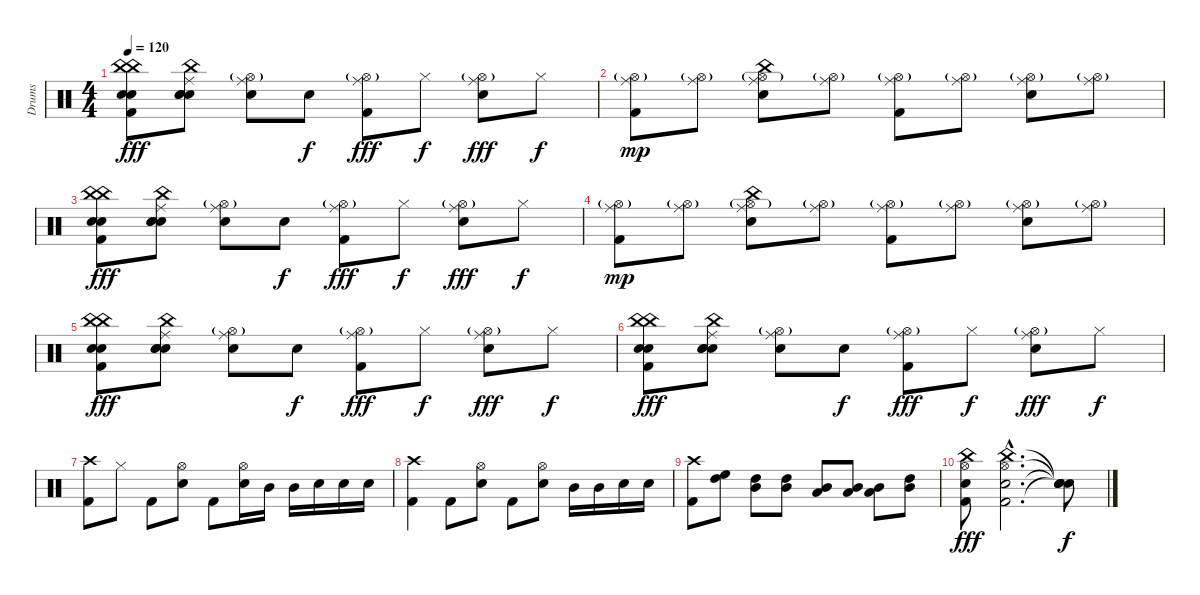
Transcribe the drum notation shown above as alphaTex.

\track ("Drums" "Drums") {instrument percussion}
\staff {score}
\articulation defaults
\ts (4 4)
\tempo 120
\clef neutral
\ks c
("China (hit)" "China (hit)" "Hand Clap (hit)" "Hand Clap (hit)" "Kick (hit) 2").8{dy fff} ("China (hit)" "Ride (middle)" "Snare (hit)" "Hand Clap (hit)" "Hand Clap (hit)").8 ("Hi-Hat (open)"{g} "Ride (middle)" "Electric Snare (hit)").8 "Electric Snare (hit)".8{dy f} ("Hi-Hat (open)"{g} "Ride (middle)" "Kick (hit) 2").8{dy fff} "Hi-Hat (closed)".8{dy f} ("Hi-Hat (open)"{g} "Ride (middle)" "Electric Snare (hit)").8{dy fff} "Hi-Hat (closed)".8{dy f} |
("Ride (middle)" "Hi-Hat (open)"{g} "Kick (hit) 2").8{dy mp} ("Ride (middle)" "Hi-Hat (open)"{g}).8 ("Ride (middle)" "Hi-Hat (open)"{g} "Electric Snare (hit)" "China (hit)").8 ("Ride (middle)" "Hi-Hat (open)"{g}).8 ("Ride (middle)" "Hi-Hat (open)"{g} "Kick (hit) 2").8 ("Ride (middle)" "Hi-Hat (open)"{g}).8 ("Ride (middle)" "Hi-Hat (open)"{g} "Electric Snare (hit)").8 ("Ride (middle)" "Hi-Hat (open)"{g}).8 |
("China (hit)" "China (hit)" "Hand Clap (hit)" "Hand Clap (hit)" "Kick (hit) 2").8{dy fff} ("China (hit)" "Ride (middle)" "Snare (hit)" "Hand Clap (hit)" "Hand Clap (hit)").8 ("Hi-Hat (open)"{g} "Ride (middle)" "Electric Snare (hit)").8 "Electric Snare (hit)".8{dy f} ("Hi-Hat (open)"{g} "Ride (middle)" "Kick (hit) 2").8{dy fff} "Hi-Hat (closed)".8{dy f} ("Hi-Hat (open)"{g} "Ride (middle)" "Electric Snare (hit)").8{dy fff} "Hi-Hat (closed)".8{dy f} |
("Ride (middle)" "Hi-Hat (open)"{g} "Kick (hit) 2").8{dy mp} ("Ride (middle)" "Hi-Hat (open)"{g}).8 ("Ride (middle)" "Hi-Hat (open)"{g} "Electric Snare (hit)" "China (hit)").8 ("Ride (middle)" "Hi-Hat (open)"{g}).8 ("Ride (middle)" "Hi-Hat (open)"{g} "Kick (hit) 2").8 ("Ride (middle)" "Hi-Hat (open)"{g}).8 ("Ride (middle)" "Hi-Hat (open)"{g} "Electric Snare (hit)").8 ("Ride (middle)" "Hi-Hat (open)"{g}).8 |
("China (hit)" "China (hit)" "Hand Clap (hit)" "Hand Clap (hit)" "Kick (hit) 2").8{dy fff} ("China (hit)" "Ride (middle)" "Snare (hit)" "Hand Clap (hit)" "Hand Clap (hit)").8 ("Hi-Hat (open)"{g} "Ride (middle)" "Electric Snare (hit)").8 "Electric Snare (hit)".8{dy f} ("Hi-Hat (open)"{g} "Ride (middle)" "Kick (hit) 2").8{dy fff} "Hi-Hat (closed)".8{dy f} ("Hi-Hat (open)"{g} "Ride (middle)" "Electric Snare (hit)").8{dy fff} "Hi-Hat (closed)".8{dy f} |
("China (hit)" "China (hit)" "Hand Clap (hit)" "Hand Clap (hit)" "Kick (hit) 2").8{dy fff} ("China (hit)" "Ride (middle)" "Snare (hit)" "Hand Clap (hit)" "Hand Clap (hit)").8 ("Hi-Hat (open)"{g} "Ride (middle)" "Electric Snare (hit)").8 "Electric Snare (hit)".8{dy f} ("Hi-Hat (open)"{g} "Ride (middle)" "Kick (hit) 2").8{dy fff} "Hi-Hat (closed)".8{dy f} ("Hi-Hat (open)"{g} "Ride (middle)" "Electric Snare (hit)").8{dy fff} "Hi-Hat (closed)".8{dy f} |
("Crash high (hit)" "Kick (hit) 2").8 "Hi-Hat (closed)".8 "Kick (hit) 2".8 ("Hi-Hat (open)" "Electric Snare (hit)").8 "Kick (hit) 2".8 ("Hi-Hat (open)" "Electric Snare (hit)").16 "Mid Tom (hit)".16 "Mid Tom (hit)".16 "Electric Snare (hit)".16 "Electric Snare (hit)".16 "Electric Snare (hit)".16 |
("Crash high (hit)" "Kick (hit) 2").4 "Kick (hit) 2".8 ("Hi-Hat (open)" "Electric Snare (hit)").8 "Kick (hit) 2".8 ("Hi-Hat (open)" "Electric Snare (hit)").8 "Mid Tom (hit)".16 "Mid Tom (hit)".16 "Electric Snare (hit)".16 "Electric Snare (hit)".16 |
("Crash high (hit)" "Kick (hit) 2").8 ("High Tom (hit)" "High Floor Tom (hit)").8 ("Mid Tom (hit)" "High Tom (hit)").8 ("Mid Tom (hit)" "High Tom (hit)").8 ("Low Tom (hit)" "Mid Tom (hit)").8 ("Low Tom (hit)" "Mid Tom (hit)").8 ("Low Tom (hit)" "Mid Tom (hit)").8 ("Mid Tom (hit)" "High Tom (hit)").8 |
("Hi-Hat (open)" "China (hit)" "Hand Clap (hit)" "Kick (hit) 2").8{dy fff} ("Hi-Hat (open)"{hac} "China (hit)"{hac} "Hand Clap (hit)"{hac} "Kick (hit) 2"{hac}).2{d} ("Snare (hit)"{t} "Snare (hit)"{t} "Snare (hit)"{t} "Snare (hit)"{t}).8{dy f}
